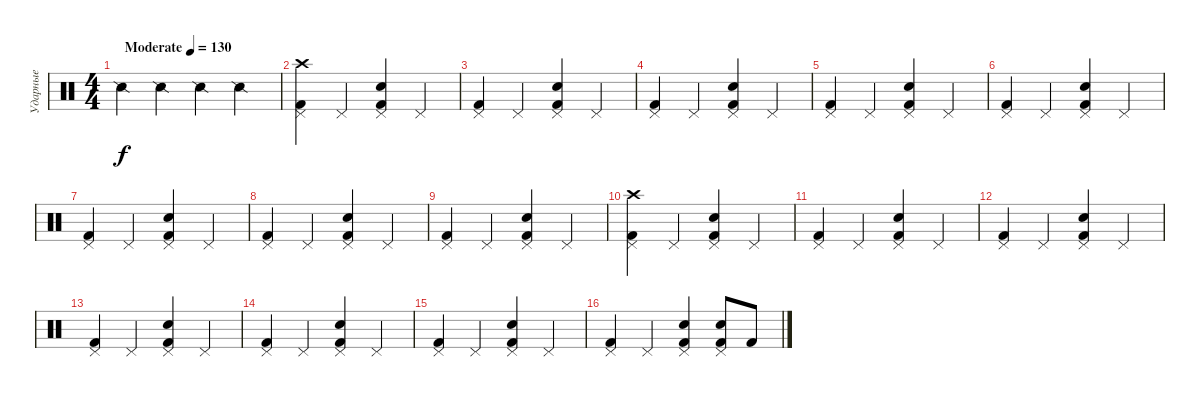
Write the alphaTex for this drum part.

\track ("Ударные" "Ударные") {instrument percussion}
\staff {score}
\articulation defaults
\ts (4 4)
\tempo (130 "Moderate")
\clef neutral
\ks c "Snare (side stick) 2".4{dy f} "Snare (side stick) 2".4 "Snare (side stick) 2".4 "Snare (side stick) 2".4
|
("Crash high (hit)" "Pedal Hi-Hat (hit)" "Kick (hit) 2").4 "Pedal Hi-Hat (hit)".4 ("Pedal Hi-Hat (hit)" "Snare (hit) 2" "Kick (hit) 2").4 "Pedal Hi-Hat (hit)".4 |
("Pedal Hi-Hat (hit)" "Kick (hit) 2").4 "Pedal Hi-Hat (hit)".4 ("Pedal Hi-Hat (hit)" "Snare (hit) 2" "Kick (hit) 2").4 "Pedal Hi-Hat (hit)".4 |
("Pedal Hi-Hat (hit)" "Kick (hit) 2").4 "Pedal Hi-Hat (hit)".4 ("Pedal Hi-Hat (hit)" "Snare (hit) 2" "Kick (hit) 2").4 "Pedal Hi-Hat (hit)".4 |
("Pedal Hi-Hat (hit)" "Kick (hit) 2").4 "Pedal Hi-Hat (hit)".4 ("Pedal Hi-Hat (hit)" "Snare (hit) 2" "Kick (hit) 2").4 "Pedal Hi-Hat (hit)".4 |
("Pedal Hi-Hat (hit)" "Kick (hit) 2").4 "Pedal Hi-Hat (hit)".4 ("Pedal Hi-Hat (hit)" "Snare (hit) 2" "Kick (hit) 2").4 "Pedal Hi-Hat (hit)".4 |
("Pedal Hi-Hat (hit)" "Kick (hit) 2").4 "Pedal Hi-Hat (hit)".4 ("Pedal Hi-Hat (hit)" "Snare (hit) 2" "Kick (hit) 2").4 "Pedal Hi-Hat (hit)".4 |
("Pedal Hi-Hat (hit)" "Kick (hit) 2").4 "Pedal Hi-Hat (hit)".4 ("Pedal Hi-Hat (hit)" "Snare (hit) 2" "Kick (hit) 2").4 "Pedal Hi-Hat (hit)".4 |
("Pedal Hi-Hat (hit)" "Kick (hit) 2").4 "Pedal Hi-Hat (hit)".4 ("Pedal Hi-Hat (hit)" "Snare (hit) 2" "Kick (hit) 2").4 "Pedal Hi-Hat (hit)".4 |
("Crash high (hit)" "Pedal Hi-Hat (hit)" "Kick (hit) 2").4 "Pedal Hi-Hat (hit)".4 ("Pedal Hi-Hat (hit)" "Snare (hit) 2" "Kick (hit) 2").4 "Pedal Hi-Hat (hit)".4 |
("Pedal Hi-Hat (hit)" "Kick (hit) 2").4 "Pedal Hi-Hat (hit)".4 ("Pedal Hi-Hat (hit)" "Snare (hit) 2" "Kick (hit) 2").4 "Pedal Hi-Hat (hit)".4 |
("Pedal Hi-Hat (hit)" "Kick (hit) 2").4 "Pedal Hi-Hat (hit)".4 ("Pedal Hi-Hat (hit)" "Snare (hit) 2" "Kick (hit) 2").4 "Pedal Hi-Hat (hit)".4 |
("Pedal Hi-Hat (hit)" "Kick (hit) 2").4 "Pedal Hi-Hat (hit)".4 ("Pedal Hi-Hat (hit)" "Snare (hit) 2" "Kick (hit) 2").4 "Pedal Hi-Hat (hit)".4 |
("Pedal Hi-Hat (hit)" "Kick (hit) 2").4 "Pedal Hi-Hat (hit)".4 ("Pedal Hi-Hat (hit)" "Snare (hit) 2" "Kick (hit) 2").4 "Pedal Hi-Hat (hit)".4 |
("Pedal Hi-Hat (hit)" "Kick (hit) 2").4 "Pedal Hi-Hat (hit)".4 ("Pedal Hi-Hat (hit)" "Snare (hit) 2" "Kick (hit) 2").4 "Pedal Hi-Hat (hit)".4 |
("Pedal Hi-Hat (hit)" "Kick (hit) 2").4 "Pedal Hi-Hat (hit)".4 ("Pedal Hi-Hat (hit)" "Snare (hit) 2" "Kick (hit) 2").4 ("Pedal Hi-Hat (hit)" "Snare (hit) 2" "Kick (hit) 2").8 "Kick (hit) 2".8
